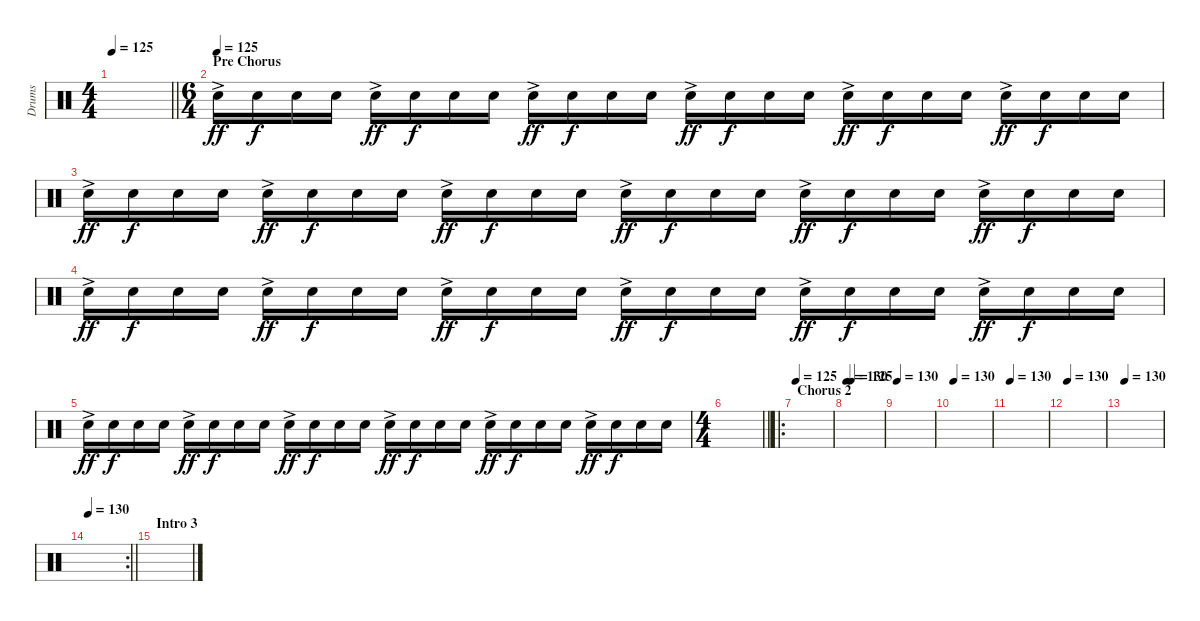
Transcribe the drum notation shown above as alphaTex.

\track ("Drums" "Drums") {instrument percussion}
\staff {score}
\articulation defaults
\ts (4 4)
\tempo 125
\clef neutral
\barLineRight lightlight
\ks c
|
\ts (6 4)
\section ("" "Pre Chorus")
\tempo (125)
"Electric Snare (hit)"{ac}.16{dy ff} "Electric Snare (hit)".16{dy f} "Electric Snare (hit)".16 "Electric Snare (hit)".16 "Electric Snare (hit)"{ac}.16{dy ff} "Electric Snare (hit)".16{dy f} "Electric Snare (hit)".16 "Electric Snare (hit)".16 "Electric Snare (hit)"{ac}.16{dy ff} "Electric Snare (hit)".16{dy f} "Electric Snare (hit)".16 "Electric Snare (hit)".16 "Electric Snare (hit)"{ac}.16{dy ff} "Electric Snare (hit)".16{dy f} "Electric Snare (hit)".16 "Electric Snare (hit)".16 "Electric Snare (hit)"{ac}.16{dy ff} "Electric Snare (hit)".16{dy f} "Electric Snare (hit)".16 "Electric Snare (hit)".16 "Electric Snare (hit)"{ac}.16{dy ff} "Electric Snare (hit)".16{dy f} "Electric Snare (hit)".16 "Electric Snare (hit)".16 |
"Electric Snare (hit)"{ac}.16{dy ff} "Electric Snare (hit)".16{dy f} "Electric Snare (hit)".16 "Electric Snare (hit)".16 "Electric Snare (hit)"{ac}.16{dy ff} "Electric Snare (hit)".16{dy f} "Electric Snare (hit)".16 "Electric Snare (hit)".16 "Electric Snare (hit)"{ac}.16{dy ff} "Electric Snare (hit)".16{dy f} "Electric Snare (hit)".16 "Electric Snare (hit)".16 "Electric Snare (hit)"{ac}.16{dy ff} "Electric Snare (hit)".16{dy f} "Electric Snare (hit)".16 "Electric Snare (hit)".16 "Electric Snare (hit)"{ac}.16{dy ff} "Electric Snare (hit)".16{dy f} "Electric Snare (hit)".16 "Electric Snare (hit)".16 "Electric Snare (hit)"{ac}.16{dy ff} "Electric Snare (hit)".16{dy f} "Electric Snare (hit)".16 "Electric Snare (hit)".16 |
"Electric Snare (hit)"{ac}.16{dy ff} "Electric Snare (hit)".16{dy f} "Electric Snare (hit)".16 "Electric Snare (hit)".16 "Electric Snare (hit)"{ac}.16{dy ff} "Electric Snare (hit)".16{dy f} "Electric Snare (hit)".16 "Electric Snare (hit)".16 "Electric Snare (hit)"{ac}.16{dy ff} "Electric Snare (hit)".16{dy f} "Electric Snare (hit)".16 "Electric Snare (hit)".16 "Electric Snare (hit)"{ac}.16{dy ff} "Electric Snare (hit)".16{dy f} "Electric Snare (hit)".16 "Electric Snare (hit)".16 "Electric Snare (hit)"{ac}.16{dy ff} "Electric Snare (hit)".16{dy f} "Electric Snare (hit)".16 "Electric Snare (hit)".16 "Electric Snare (hit)"{ac}.16{dy ff} "Electric Snare (hit)".16{dy f} "Electric Snare (hit)".16 "Electric Snare (hit)".16 |
"Electric Snare (hit)"{ac}.16{dy ff} "Electric Snare (hit)".16{dy f} "Electric Snare (hit)".16 "Electric Snare (hit)".16 "Electric Snare (hit)"{ac}.16{dy ff} "Electric Snare (hit)".16{dy f} "Electric Snare (hit)".16 "Electric Snare (hit)".16 "Electric Snare (hit)"{ac}.16{dy ff} "Electric Snare (hit)".16{dy f} "Electric Snare (hit)".16 "Electric Snare (hit)".16 "Electric Snare (hit)"{ac}.16{dy ff} "Electric Snare (hit)".16{dy f} "Electric Snare (hit)".16 "Electric Snare (hit)".16 "Electric Snare (hit)"{ac}.16{dy ff} "Electric Snare (hit)".16{dy f} "Electric Snare (hit)".16 "Electric Snare (hit)".16 "Electric Snare (hit)"{ac}.16{dy ff} "Electric Snare (hit)".16{dy f} "Electric Snare (hit)".16 "Electric Snare (hit)".16 |
\ts (4 4)
\barLineRight lightlight
|
\ro
\section ("" "Chorus 2")
\tempo 130
\tempo 125
|
\tempo 130
\tempo (125 0.125)
|
\tempo 130
|
\tempo 130
|
\tempo 130
|
\tempo 130
|
\tempo 130
|
\rc 2
\tempo 130
\barLineRight lightlight
|
\section ("" "Intro 3")
